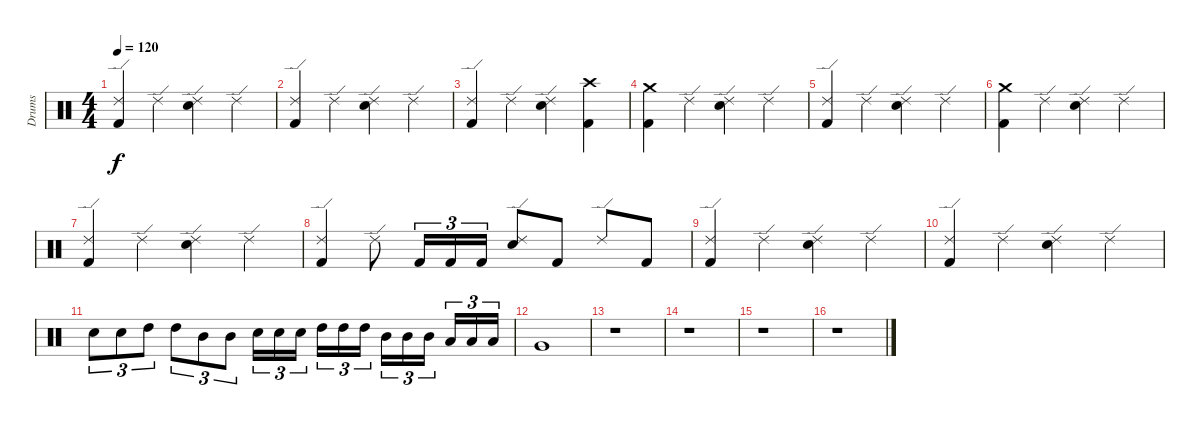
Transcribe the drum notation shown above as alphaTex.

\track ("Drums" "Drums") {instrument percussion}
\staff {score}
\articulation defaults
\ts (4 4)
\tempo 120
\clef neutral
\ks c
("Kick (hit) 2" "Ride (edge) 2").4{dy f} "Ride (edge) 2".4 ("Electric Snare (hit)" "Ride (edge) 2").4 "Ride (edge) 2".4 |
("Kick (hit) 2" "Ride (edge) 2").4 "Ride (edge) 2".4 ("Electric Snare (hit)" "Ride (edge) 2").4 "Ride (edge) 2".4 |
("Kick (hit) 2" "Ride (edge) 2").4 "Ride (edge) 2".4 ("Electric Snare (hit)" "Ride (edge) 2").4 ("Kick (hit) 2" "Crash high (hit)").4 |
("Kick (hit) 2" "Crash medium (hit)").4 "Ride (edge) 2".4 ("Electric Snare (hit)" "Ride (edge) 2").4 "Ride (edge) 2".4 |
("Kick (hit) 2" "Ride (edge) 2").4 "Ride (edge) 2".4 ("Electric Snare (hit)" "Ride (edge) 2").4 "Ride (edge) 2".4 |
("Kick (hit) 2" "Crash medium (hit)").4 "Ride (edge) 2".4 ("Electric Snare (hit)" "Ride (edge) 2").4 "Ride (edge) 2".4 |
("Kick (hit) 2" "Ride (edge) 2").4 "Ride (edge) 2".4 ("Electric Snare (hit)" "Ride (edge) 2").4 "Ride (edge) 2".4 |
("Kick (hit) 2" "Ride (edge) 2").4 "Ride (edge) 2".8 "Kick (hit) 2".16{tu (3 2)} "Kick (hit) 2".16{tu (3 2)} "Kick (hit) 2".16{tu (3 2)} ("Electric Snare (hit)" "Ride (edge) 2").8 "Kick (hit) 2".8 "Ride (edge) 2".8 "Kick (hit) 2".8 |
("Kick (hit) 2" "Ride (edge) 2").4 "Ride (edge) 2".4 ("Electric Snare (hit)" "Ride (edge) 2").4 "Ride (edge) 2".4 |
("Kick (hit) 2" "Ride (edge) 2").4 "Ride (edge) 2".4 ("Electric Snare (hit)" "Ride (edge) 2").4 "Ride (edge) 2".4 |
"Electric Snare (hit)".8{tu (3 2)} "Electric Snare (hit)".8{tu (3 2)} "High Tom (hit)".8{tu (3 2)} "High Tom (hit)".8{tu (3 2)} "Mid Tom (hit)".8{tu (3 2)} "Mid Tom (hit)".8{tu (3 2)} "Electric Snare (hit)".16{tu (3 2)} "Electric Snare (hit)".16{tu (3 2)} "Electric Snare (hit)".16{tu (3 2)} "High Tom (hit)".16{tu (3 2)} "High Tom (hit)".16{tu (3 2)} "High Tom (hit)".16{tu (3 2)} "Mid Tom (hit)".16{tu (3 2)} "Mid Tom (hit)".16{tu (3 2)} "Mid Tom (hit)".16{tu (3 2)} "Low Tom (hit)".16{tu (3 2)} "Low Tom (hit)".16{tu (3 2)} "Low Tom (hit)".16{tu (3 2)} |
"Very Low Tom (hit)".1 |
r.1 |
r.1 |
r.1 |
r.1
